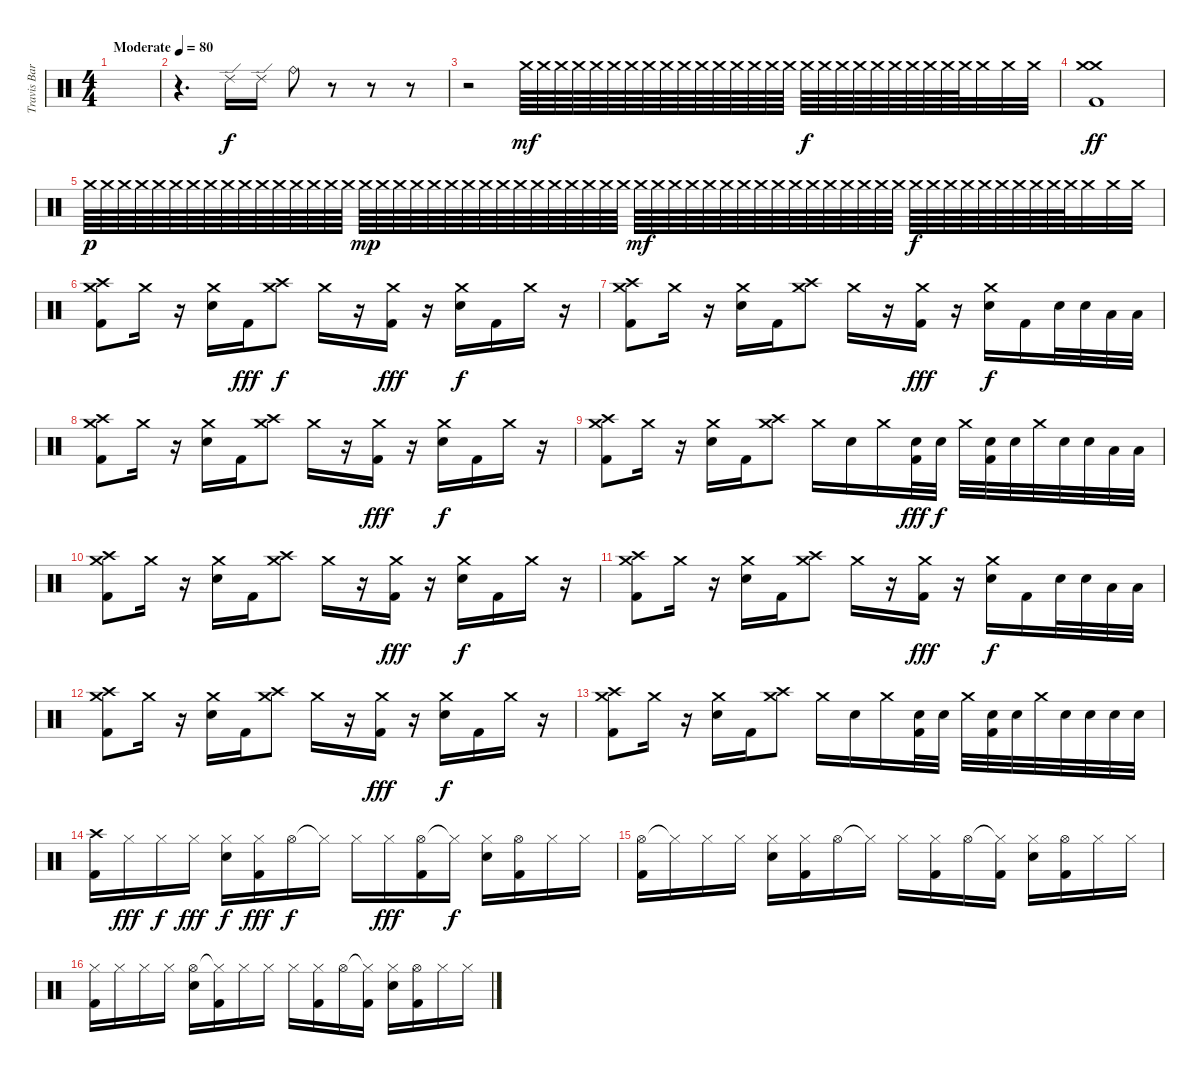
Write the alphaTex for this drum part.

\track ("Travis Barker" "Travis Bar") {instrument percussion}
\staff {score}
\articulation defaults
\ts (4 4)
\tempo (80 "Moderate")
\clef neutral
\ks c
|
r.4{d} "Ride (edge) 2".16 "Ride (edge) 2".16 "Ride (bell)".8 r.8 r.8 r.8 |
r.2 "Crash medium (hit)".64{dy mf} "Crash medium (hit)".64 "Crash medium (hit)".64 "Crash medium (hit)".64 "Crash medium (hit)".64 "Crash medium (hit)".64 "Crash medium (hit)".64 "Crash medium (hit)".64 "Crash medium (hit)".64 "Crash medium (hit)".64 "Crash medium (hit)".64 "Crash medium (hit)".64 "Crash medium (hit)".64 "Crash medium (hit)".64 "Crash medium (hit)".64 "Crash medium (hit)".64 "Crash medium (hit)".64{dy f} "Crash medium (hit)".64 "Crash medium (hit)".64 "Crash medium (hit)".64 "Crash medium (hit)".64 "Crash medium (hit)".64 "Crash medium (hit)".64 "Crash medium (hit)".64 "Crash medium (hit)".64 "Crash medium (hit)".64 "Crash medium (hit)".32 "Crash medium (hit)".32 "Crash medium (hit)".32 |
("Crash medium (hit)" "Crash medium (hit)" "Kick (hit) 2").1{dy ff} |
"Crash medium (hit)".64{dy p} "Crash medium (hit)".64 "Crash medium (hit)".64 "Crash medium (hit)".64 "Crash medium (hit)".64 "Crash medium (hit)".64 "Crash medium (hit)".64 "Crash medium (hit)".64 "Crash medium (hit)".64 "Crash medium (hit)".64 "Crash medium (hit)".64 "Crash medium (hit)".64 "Crash medium (hit)".64 "Crash medium (hit)".64 "Crash medium (hit)".64 "Crash medium (hit)".64 "Crash medium (hit)".64{dy mp} "Crash medium (hit)".64 "Crash medium (hit)".64 "Crash medium (hit)".64 "Crash medium (hit)".64 "Crash medium (hit)".64 "Crash medium (hit)".64 "Crash medium (hit)".64 "Crash medium (hit)".64 "Crash medium (hit)".64 "Crash medium (hit)".64 "Crash medium (hit)".64 "Crash medium (hit)".64 "Crash medium (hit)".64 "Crash medium (hit)".64 "Crash medium (hit)".64 "Crash medium (hit)".64{dy mf} "Crash medium (hit)".64 "Crash medium (hit)".64 "Crash medium (hit)".64 "Crash medium (hit)".64 "Crash medium (hit)".64 "Crash medium (hit)".64 "Crash medium (hit)".64 "Crash medium (hit)".64 "Crash medium (hit)".64 "Crash medium (hit)".64 "Crash medium (hit)".64 "Crash medium (hit)".64 "Crash medium (hit)".64 "Crash medium (hit)".64 "Crash medium (hit)".64 "Crash medium (hit)".64{dy f} "Crash medium (hit)".64 "Crash medium (hit)".64 "Crash medium (hit)".64 "Crash medium (hit)".64 "Crash medium (hit)".64 "Crash medium (hit)".64 "Crash medium (hit)".64 "Crash medium (hit)".64 "Crash medium (hit)".64 "Crash medium (hit)".32 "Crash medium (hit)".32 "Crash medium (hit)".32 |
("Crash high (hit)" "Crash medium (hit)" "Kick (hit) 2").8 "Crash medium (hit)".16 r.16 ("Crash medium (hit)" "Electric Snare (hit)").16 "Kick (hit) 2".16{dy fff} ("Crash high (hit)" "Crash medium (hit)").8{dy f} "Crash medium (hit)".16 r.16 ("Crash medium (hit)" "Kick (hit) 2").16{dy fff} r.16 ("Crash medium (hit)" "Electric Snare (hit)").16{dy f} "Kick (hit) 2".16 "Crash medium (hit)".16 r.16 |
("Crash high (hit)" "Crash medium (hit)" "Kick (hit) 2").8 "Crash medium (hit)".16 r.16 ("Crash medium (hit)" "Electric Snare (hit)").16 "Kick (hit) 2".16 ("Crash high (hit)" "Crash medium (hit)").8 "Crash medium (hit)".16 r.16 ("Crash medium (hit)" "Kick (hit) 2").16{dy fff} r.16 ("Crash medium (hit)" "Electric Snare (hit)").16{dy f} "Kick (hit) 2".16 "Electric Snare (hit)".32 "Electric Snare (hit)".32 "Low Tom (hit)".32 "Low Tom (hit)".32 |
("Crash high (hit)" "Crash medium (hit)" "Kick (hit) 2").8 "Crash medium (hit)".16 r.16 ("Crash medium (hit)" "Electric Snare (hit)").16 "Kick (hit) 2".16 ("Crash high (hit)" "Crash medium (hit)").8 "Crash medium (hit)".16 r.16 ("Crash medium (hit)" "Kick (hit) 2").16{dy fff} r.16 ("Crash medium (hit)" "Electric Snare (hit)").16{dy f} "Kick (hit) 2".16 "Crash medium (hit)".16 r.16 |
("Crash high (hit)" "Crash medium (hit)" "Kick (hit) 2").8 "Crash medium (hit)".16 r.16 ("Crash medium (hit)" "Electric Snare (hit)").16 "Kick (hit) 2".16 ("Crash high (hit)" "Crash medium (hit)").8 "Crash medium (hit)".16 "Electric Snare (hit)".16 "Crash medium (hit)".16 ("Electric Snare (hit)" "Kick (hit) 2").32{dy fff} "Electric Snare (hit)".32{dy f} "Crash medium (hit)".32 ("Electric Snare (hit)" "Kick (hit) 2").32 "Electric Snare (hit)".32 "Crash medium (hit)".32 "Electric Snare (hit)".32 "Electric Snare (hit)".32 "Low Tom (hit)".32 "Low Tom (hit)".32 |
("Crash high (hit)" "Crash medium (hit)" "Kick (hit) 2").8 "Crash medium (hit)".16 r.16 ("Crash medium (hit)" "Electric Snare (hit)").16 "Kick (hit) 2".16 ("Crash high (hit)" "Crash medium (hit)").8 "Crash medium (hit)".16 r.16 ("Crash medium (hit)" "Kick (hit) 2").16{dy fff} r.16 ("Crash medium (hit)" "Electric Snare (hit)").16{dy f} "Kick (hit) 2".16 "Crash medium (hit)".16 r.16 |
("Crash high (hit)" "Crash medium (hit)" "Kick (hit) 2").8 "Crash medium (hit)".16 r.16 ("Crash medium (hit)" "Electric Snare (hit)").16 "Kick (hit) 2".16 ("Crash high (hit)" "Crash medium (hit)").8 "Crash medium (hit)".16 r.16 ("Crash medium (hit)" "Kick (hit) 2").16{dy fff} r.16 ("Crash medium (hit)" "Electric Snare (hit)").16{dy f} "Kick (hit) 2".16 "Electric Snare (hit)".32 "Electric Snare (hit)".32 "Low Tom (hit)".32 "Low Tom (hit)".32 |
("Crash high (hit)" "Crash medium (hit)" "Kick (hit) 2").8 "Crash medium (hit)".16 r.16 ("Crash medium (hit)" "Electric Snare (hit)").16 "Kick (hit) 2".16 ("Crash high (hit)" "Crash medium (hit)").8 "Crash medium (hit)".16 r.16 ("Crash medium (hit)" "Kick (hit) 2").16{dy fff} r.16 ("Crash medium (hit)" "Electric Snare (hit)").16{dy f} "Kick (hit) 2".16 "Crash medium (hit)".16 r.16 |
("Crash high (hit)" "Crash medium (hit)" "Kick (hit) 2").8 "Crash medium (hit)".16 r.16 ("Crash medium (hit)" "Electric Snare (hit)").16 "Kick (hit) 2".16 ("Crash high (hit)" "Crash medium (hit)").8 "Crash medium (hit)".16 "Electric Snare (hit)".16 "Crash medium (hit)".16 ("Electric Snare (hit)" "Kick (hit) 2").32 "Electric Snare (hit)".32 "Crash medium (hit)".32 ("Electric Snare (hit)" "Kick (hit) 2").32 "Electric Snare (hit)".32 "Crash medium (hit)".32 "Electric Snare (hit)".32 "Electric Snare (hit)".32 "Electric Snare (hit)".32 "Electric Snare (hit)".32 |
("Crash high (hit)" "Kick (hit) 2").16 "Hi-Hat (closed)".16{dy fff} "Hi-Hat (closed)".16{dy f} "Hi-Hat (closed)".16{dy fff} ("Hi-Hat (closed)" "Electric Snare (hit)").16{dy f} ("Hi-Hat (closed)" "Kick (hit) 2").16{dy fff} "Hi-Hat (open)".16{dy f} "Hi-Hat (closed)"{t}.16 "Hi-Hat (closed)".16 "Hi-Hat (closed)".16{dy fff} ("Hi-Hat (open)" "Kick (hit) 2").16 "Hi-Hat (closed)"{t}.16{dy f} ("Hi-Hat (closed)" "Electric Snare (hit)").16 ("Hi-Hat (open)" "Kick (hit) 2").16 "Hi-Hat (closed)".16 "Hi-Hat (closed)".16 |
("Hi-Hat (open)" "Kick (hit) 2").16 "Hi-Hat (closed)"{t}.16 "Hi-Hat (closed)".16 "Hi-Hat (closed)".16 ("Hi-Hat (closed)" "Electric Snare (hit)").16 ("Hi-Hat (closed)" "Kick (hit) 2").16 "Hi-Hat (open)".16 "Hi-Hat (closed)"{t}.16 "Hi-Hat (closed)".16 ("Hi-Hat (closed)" "Kick (hit) 2").16 "Hi-Hat (open)".16 ("Hi-Hat (closed)"{t} "Kick (hit) 2").16 ("Hi-Hat (closed)" "Electric Snare (hit)").16 ("Hi-Hat (open)" "Kick (hit) 2").16 "Hi-Hat (closed)".16 "Hi-Hat (closed)".16 |
("Hi-Hat (closed)" "Kick (hit) 2").16 "Hi-Hat (closed)".16 "Hi-Hat (closed)".16 "Hi-Hat (closed)".16 ("Hi-Hat (open)" "Electric Snare (hit)").16 ("Hi-Hat (closed)"{t} "Kick (hit) 2").16 "Hi-Hat (closed)".16 "Hi-Hat (closed)".16 "Hi-Hat (closed)".16 ("Hi-Hat (closed)" "Kick (hit) 2").16 "Hi-Hat (open)".16 ("Hi-Hat (closed)"{t} "Kick (hit) 2").16 ("Hi-Hat (closed)" "Electric Snare (hit)").16 ("Hi-Hat (open)" "Kick (hit) 2").16 "Hi-Hat (closed)".16 "Hi-Hat (closed)".16
